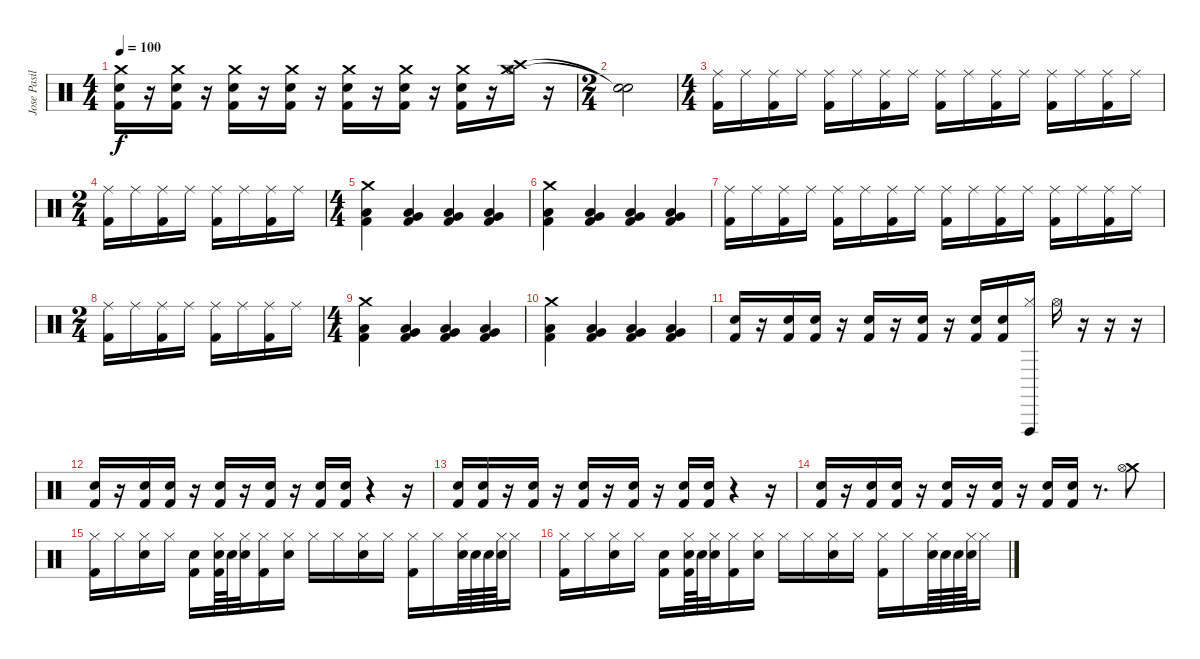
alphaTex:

\track ("Jose Pasillas" "Jose Pasil") {instrument percussion}
\staff {score}
\articulation defaults
\ts (4 4)
\tempo 100
\clef neutral
\ks c
("Crash medium (hit)" "Electric Snare (hit)" "Kick (hit) 2").16{dy f} r.16 ("Crash medium (hit)" "Electric Snare (hit)" "Kick (hit) 2").16 r.16 ("Crash medium (hit)" "Electric Snare (hit)" "Kick (hit) 2").16 r.16 ("Crash medium (hit)" "Electric Snare (hit)" "Kick (hit) 2").16 r.16 ("Crash medium (hit)" "Electric Snare (hit)" "Kick (hit) 2").16 r.16 ("Crash medium (hit)" "Electric Snare (hit)" "Kick (hit) 2").16 r.16 ("Crash medium (hit)" "Electric Snare (hit)" "Kick (hit) 2").16 r.16 ("Hi-Hat (open)" "Crash high (hit)" "Crash medium (hit)").16 r.16 |
\ts (2 4)
("Snare (hit)"{t} "Snare (hit)"{t}).2 |
\ts (4 4)
("Ride (middle)" "Kick (hit) 2").16 "Ride (middle)".16 ("Ride (middle)" "Kick (hit) 2").16 "Ride (middle)".16 ("Ride (middle)" "Kick (hit) 2").16 "Ride (middle)".16 ("Ride (middle)" "Kick (hit) 2").16 "Ride (middle)".16 ("Ride (middle)" "Kick (hit) 2").16 "Ride (middle)".16 ("Ride (middle)" "Kick (hit) 2").16 "Ride (middle)".16 ("Ride (middle)" "Kick (hit) 2").16 "Ride (middle)".16 ("Ride (middle)" "Kick (hit) 2").16 "Ride (middle)".16 |
\ts (2 4)
("Ride (middle)" "Kick (hit) 2").16 "Ride (middle)".16 ("Ride (middle)" "Kick (hit) 2").16 "Ride (middle)".16 ("Ride (middle)" "Kick (hit) 2").16 "Ride (middle)".16 ("Ride (middle)" "Kick (hit) 2").16 "Ride (middle)".16 |
\ts (4 4)
("Kick (hit) 2" "Crash medium (hit)" "Low Floor Tom (hit)").4 ("Kick (hit) 2" "Very Low Tom (hit)" "Low Floor Tom (hit)").4 ("Kick (hit) 2" "Very Low Tom (hit)" "Low Floor Tom (hit)").4 ("Kick (hit) 2" "Very Low Tom (hit)" "Low Floor Tom (hit)").4 |
("Kick (hit) 2" "Crash medium (hit)" "Low Floor Tom (hit)").4 ("Kick (hit) 2" "Very Low Tom (hit)" "Low Floor Tom (hit)").4 ("Kick (hit) 2" "Very Low Tom (hit)" "Low Floor Tom (hit)").4 ("Kick (hit) 2" "Very Low Tom (hit)" "Low Floor Tom (hit)").4 |
("Ride (middle)" "Kick (hit) 2").16 "Ride (middle)".16 ("Ride (middle)" "Kick (hit) 2").16 "Ride (middle)".16 ("Ride (middle)" "Kick (hit) 2").16 "Ride (middle)".16 ("Ride (middle)" "Kick (hit) 2").16 "Ride (middle)".16 ("Ride (middle)" "Kick (hit) 2").16 "Ride (middle)".16 ("Ride (middle)" "Kick (hit) 2").16 "Ride (middle)".16 ("Ride (middle)" "Kick (hit) 2").16 "Ride (middle)".16 ("Ride (middle)" "Kick (hit) 2").16 "Ride (middle)".16 |
\ts (2 4)
("Ride (middle)" "Kick (hit) 2").16 "Ride (middle)".16 ("Ride (middle)" "Kick (hit) 2").16 "Ride (middle)".16 ("Ride (middle)" "Kick (hit) 2").16 "Ride (middle)".16 ("Ride (middle)" "Kick (hit) 2").16 "Ride (middle)".16 |
\ts (4 4)
("Kick (hit) 2" "Crash medium (hit)" "Low Floor Tom (hit)").4 ("Kick (hit) 2" "Very Low Tom (hit)" "Low Floor Tom (hit)").4 ("Kick (hit) 2" "Very Low Tom (hit)" "Low Floor Tom (hit)").4 ("Kick (hit) 2" "Very Low Tom (hit)" "Low Floor Tom (hit)").4 |
("Kick (hit) 2" "Crash medium (hit)" "Low Floor Tom (hit)").4 ("Kick (hit) 2" "Very Low Tom (hit)" "Low Floor Tom (hit)").4 ("Kick (hit) 2" "Very Low Tom (hit)" "Low Floor Tom (hit)").4 ("Kick (hit) 2" "Very Low Tom (hit)" "Low Floor Tom (hit)").4 |
("Electric Snare (hit)" "Kick (hit) 2").16 r.16 ("Electric Snare (hit)" "Kick (hit) 2").16 ("Electric Snare (hit)" "Kick (hit) 2").16 r.16 ("Electric Snare (hit)" "Kick (hit) 2").16 r.16 ("Electric Snare (hit)" "Kick (hit) 2").16 r.16 ("Electric Snare (hit)" "Kick (hit) 2").16 ("Electric Snare (hit)" "Kick (hit) 2").16 ("Vibraslap (hit)" "Hi-Hat (closed)").16 "Hi-Hat (open)".16 r.16 r.16 r.16 |
("Electric Snare (hit)" "Kick (hit) 2").16 r.16 ("Electric Snare (hit)" "Kick (hit) 2").16 ("Electric Snare (hit)" "Kick (hit) 2").16 r.16 ("Electric Snare (hit)" "Kick (hit) 2").16 r.16 ("Electric Snare (hit)" "Kick (hit) 2").16 r.16 ("Electric Snare (hit)" "Kick (hit) 2").16 ("Electric Snare (hit)" "Kick (hit) 2").16 r.4 r.16 |
("Electric Snare (hit)" "Kick (hit) 2").16 ("Kick (hit) 2" "Electric Snare (hit)").16 r.16 ("Kick (hit) 2" "Electric Snare (hit)").16 r.16 ("Kick (hit) 2" "Electric Snare (hit)").16 r.16 ("Kick (hit) 2" "Electric Snare (hit)").16 r.16 ("Kick (hit) 2" "Electric Snare (hit)").16 ("Kick (hit) 2" "Electric Snare (hit)").16 r.4 r.16 |
("Electric Snare (hit)" "Kick (hit) 2").16 r.16 ("Electric Snare (hit)" "Kick (hit) 2").16 ("Electric Snare (hit)" "Kick (hit) 2").16 r.16 ("Electric Snare (hit)" "Kick (hit) 2").16 r.16 ("Electric Snare (hit)" "Kick (hit) 2").16 r.16 ("Electric Snare (hit)" "Kick (hit) 2").16 ("Electric Snare (hit)" "Kick (hit) 2").16 r.8{d} ("Crash medium (hit)" "Hi-Hat (open)").8 |
("Hi-Hat (closed)" "Kick (hit) 2").16 "Hi-Hat (closed)".16 ("Electric Snare (hit)" "Hi-Hat (closed)").16 "Hi-Hat (closed)".16 ("Electric Snare (hit)" "Kick (hit) 2").16 ("Kick (hit) 2" "Electric Snare (hit)" "Hi-Hat (closed)").64 "Electric Snare (hit)".64 ("Electric Snare (hit)" "Hi-Hat (closed)").32 ("Hi-Hat (closed)" "Kick (hit) 2").16 ("Electric Snare (hit)" "Hi-Hat (closed)").16 "Hi-Hat (closed)".16 "Hi-Hat (closed)".16 ("Electric Snare (hit)" "Hi-Hat (closed)").16 "Hi-Hat (closed)".16 ("Hi-Hat (closed)" "Kick (hit) 2").16 "Hi-Hat (closed)".16 ("Electric Snare (hit)" "Hi-Hat (closed)").64 "Electric Snare (hit)".64 "Electric Snare (hit)".64 ("Electric Snare (hit)" "Hi-Hat (closed)").64 "Hi-Hat (closed)".16 |
("Hi-Hat (closed)" "Kick (hit) 2").16 "Hi-Hat (closed)".16 ("Electric Snare (hit)" "Hi-Hat (closed)").16 "Hi-Hat (closed)".16 ("Electric Snare (hit)" "Kick (hit) 2").16 ("Kick (hit) 2" "Electric Snare (hit)" "Hi-Hat (closed)").64 "Electric Snare (hit)".64 ("Electric Snare (hit)" "Hi-Hat (closed)").32 ("Hi-Hat (closed)" "Kick (hit) 2").16 ("Electric Snare (hit)" "Hi-Hat (closed)").16 "Hi-Hat (closed)".16 "Hi-Hat (closed)".16 ("Electric Snare (hit)" "Hi-Hat (closed)").16 "Hi-Hat (closed)".16 ("Hi-Hat (closed)" "Kick (hit) 2").16 "Hi-Hat (closed)".16 ("Electric Snare (hit)" "Hi-Hat (closed)").64 "Electric Snare (hit)".64 "Electric Snare (hit)".64 ("Electric Snare (hit)" "Hi-Hat (closed)").64 "Hi-Hat (closed)".16
